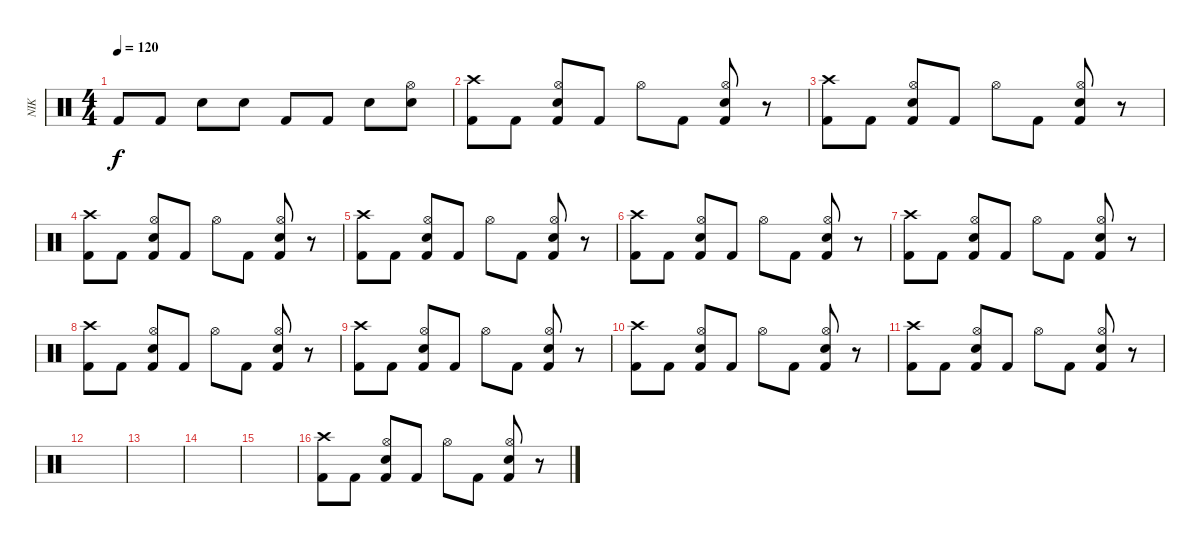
\track ("NIK" "NIK") {instrument percussion}
\staff {score}
\articulation defaults
\ts (4 4)
\tempo 120
\clef neutral
\ks c "Kick (hit) 2".8{dy f} "Kick (hit) 2".8 "Electric Snare (hit)".8 "Electric Snare (hit)".8 "Kick (hit) 2".8 "Kick (hit) 2".8 "Electric Snare (hit)".8
("Electric Snare (hit)" "Hi-Hat (open)").8 |
("Crash high (hit)" "Kick (hit) 2").8 "Kick (hit) 2".8 ("Kick (hit) 2" "Hi-Hat (open)" "Snare (hit) 2").8 "Kick (hit) 2".8 "Hi-Hat (open)".8 "Kick (hit) 2".8 ("Kick (hit) 2" "Hi-Hat (open)" "Snare (hit) 2").8 r.8 |
("Crash high (hit)" "Kick (hit) 2").8 "Kick (hit) 2".8 ("Kick (hit) 2" "Hi-Hat (open)" "Snare (hit) 2").8 "Kick (hit) 2".8 "Hi-Hat (open)".8 "Kick (hit) 2".8 ("Kick (hit) 2" "Hi-Hat (open)" "Snare (hit) 2").8 r.8 |
("Crash high (hit)" "Kick (hit) 2").8 "Kick (hit) 2".8 ("Kick (hit) 2" "Hi-Hat (open)" "Snare (hit) 2").8 "Kick (hit) 2".8 "Hi-Hat (open)".8 "Kick (hit) 2".8 ("Kick (hit) 2" "Hi-Hat (open)" "Snare (hit) 2").8 r.8 |
("Crash high (hit)" "Kick (hit) 2").8 "Kick (hit) 2".8 ("Kick (hit) 2" "Hi-Hat (open)" "Snare (hit) 2").8 "Kick (hit) 2".8 "Hi-Hat (open)".8 "Kick (hit) 2".8 ("Kick (hit) 2" "Hi-Hat (open)" "Snare (hit) 2").8 r.8 |
("Crash high (hit)" "Kick (hit) 2").8 "Kick (hit) 2".8 ("Kick (hit) 2" "Hi-Hat (open)" "Snare (hit) 2").8 "Kick (hit) 2".8 "Hi-Hat (open)".8 "Kick (hit) 2".8 ("Kick (hit) 2" "Hi-Hat (open)" "Snare (hit) 2").8 r.8 |
("Crash high (hit)" "Kick (hit) 2").8 "Kick (hit) 2".8 ("Kick (hit) 2" "Hi-Hat (open)" "Snare (hit) 2").8 "Kick (hit) 2".8 "Hi-Hat (open)".8 "Kick (hit) 2".8 ("Kick (hit) 2" "Hi-Hat (open)" "Snare (hit) 2").8 r.8 |
("Crash high (hit)" "Kick (hit) 2").8 "Kick (hit) 2".8 ("Kick (hit) 2" "Hi-Hat (open)" "Snare (hit) 2").8 "Kick (hit) 2".8 "Hi-Hat (open)".8 "Kick (hit) 2".8 ("Kick (hit) 2" "Hi-Hat (open)" "Snare (hit) 2").8 r.8 |
("Crash high (hit)" "Kick (hit) 2").8 "Kick (hit) 2".8 ("Kick (hit) 2" "Hi-Hat (open)" "Snare (hit) 2").8 "Kick (hit) 2".8 "Hi-Hat (open)".8 "Kick (hit) 2".8 ("Kick (hit) 2" "Hi-Hat (open)" "Snare (hit) 2").8 r.8 |
("Crash high (hit)" "Kick (hit) 2").8 "Kick (hit) 2".8 ("Kick (hit) 2" "Hi-Hat (open)" "Snare (hit) 2").8 "Kick (hit) 2".8 "Hi-Hat (open)".8 "Kick (hit) 2".8 ("Kick (hit) 2" "Hi-Hat (open)" "Snare (hit) 2").8 r.8 |
("Crash high (hit)" "Kick (hit) 2").8 "Kick (hit) 2".8 ("Kick (hit) 2" "Hi-Hat (open)" "Snare (hit) 2").8 "Kick (hit) 2".8 "Hi-Hat (open)".8 "Kick (hit) 2".8 ("Kick (hit) 2" "Hi-Hat (open)" "Snare (hit) 2").8 r.8 |
|
|
|
|
("Crash high (hit)" "Kick (hit) 2").8 "Kick (hit) 2".8 ("Kick (hit) 2" "Hi-Hat (open)" "Snare (hit) 2").8 "Kick (hit) 2".8 "Hi-Hat (open)".8 "Kick (hit) 2".8 ("Kick (hit) 2" "Hi-Hat (open)" "Snare (hit) 2").8 r.8
